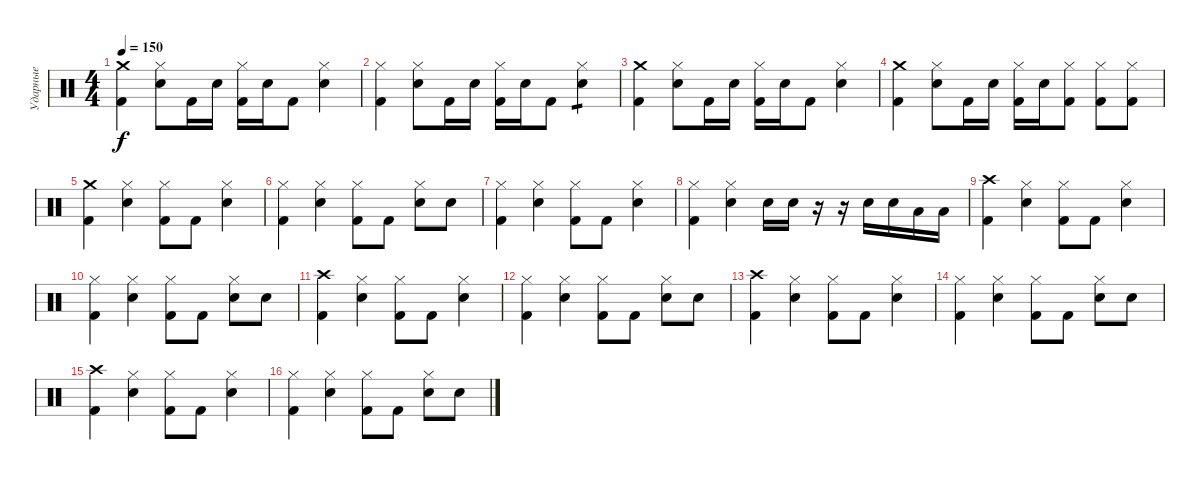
\track ("Ударные" "Ударные") {instrument percussion}
\staff {score}
\articulation defaults
\ts (4 4)
\tempo 150
\clef neutral
\ks c
("Crash medium (hit)" "Kick (hit) 2").4{dy f} ("Hi-Hat (closed)" "Electric Snare (hit)").8 "Kick (hit) 2".16 "Electric Snare (hit)".16 ("Hi-Hat (closed)" "Kick (hit) 2").16 "Electric Snare (hit)".16 "Kick (hit) 2".8 ("Hi-Hat (closed)" "Electric Snare (hit)").4 |
("Hi-Hat (closed)" "Kick (hit) 2").4 ("Hi-Hat (closed)" "Electric Snare (hit)").8 "Kick (hit) 2".16 "Electric Snare (hit)".16 ("Hi-Hat (closed)" "Kick (hit) 2").16 "Electric Snare (hit)".16 "Kick (hit) 2".8 ("Hi-Hat (closed)" "Electric Snare (hit)").4{tp 1} |
("Crash medium (hit)" "Kick (hit) 2").4 ("Hi-Hat (closed)" "Electric Snare (hit)").8 "Kick (hit) 2".16 "Electric Snare (hit)".16 ("Hi-Hat (closed)" "Kick (hit) 2").16 "Electric Snare (hit)".16 "Kick (hit) 2".8 ("Hi-Hat (closed)" "Electric Snare (hit)").4 |
("Crash medium (hit)" "Kick (hit) 2").4 ("Hi-Hat (closed)" "Electric Snare (hit)").8 "Kick (hit) 2".16 "Electric Snare (hit)".16 ("Hi-Hat (closed)" "Kick (hit) 2").16 "Electric Snare (hit)".16 ("Kick (hit) 2" "Hi-Hat (closed)").8 ("Kick (hit) 2" "Hi-Hat (closed)").8 ("Kick (hit) 2" "Hi-Hat (closed)").8 |
("Kick (hit) 2" "Crash medium (hit)").4 ("Hi-Hat (closed)" "Electric Snare (hit)").4 ("Hi-Hat (closed)" "Kick (hit) 2").8 "Kick (hit) 2".8 ("Hi-Hat (closed)" "Electric Snare (hit)").4 |
("Hi-Hat (closed)" "Kick (hit) 2").4 ("Hi-Hat (closed)" "Electric Snare (hit)").4 ("Hi-Hat (closed)" "Kick (hit) 2").8 "Kick (hit) 2".8 ("Hi-Hat (closed)" "Electric Snare (hit)").8 "Electric Snare (hit)".8 |
("Hi-Hat (closed)" "Kick (hit) 2").4 ("Hi-Hat (closed)" "Electric Snare (hit)").4 ("Hi-Hat (closed)" "Kick (hit) 2").8 "Kick (hit) 2".8 ("Hi-Hat (closed)" "Electric Snare (hit)").4 |
("Hi-Hat (closed)" "Kick (hit) 2").4 ("Hi-Hat (closed)" "Electric Snare (hit)").4 "Electric Snare (hit)".16 "Electric Snare (hit)".16 r.16 r.16 "Electric Snare (hit)".16 "Electric Snare (hit)".16 "Low Tom (hit)".16 "Low Tom (hit)".16 |
("Crash high (hit)" "Kick (hit) 2").4 ("Hi-Hat (closed)" "Electric Snare (hit)").4 ("Hi-Hat (closed)" "Kick (hit) 2").8 "Kick (hit) 2".8 ("Hi-Hat (closed)" "Electric Snare (hit)").4 |
("Hi-Hat (closed)" "Kick (hit) 2").4 ("Hi-Hat (closed)" "Electric Snare (hit)").4 ("Hi-Hat (closed)" "Kick (hit) 2").8 "Kick (hit) 2".8 ("Hi-Hat (closed)" "Electric Snare (hit)").8 "Electric Snare (hit)".8 |
("Crash high (hit)" "Kick (hit) 2").4 ("Hi-Hat (closed)" "Electric Snare (hit)").4 ("Hi-Hat (closed)" "Kick (hit) 2").8 "Kick (hit) 2".8 ("Hi-Hat (closed)" "Electric Snare (hit)").4 |
("Hi-Hat (closed)" "Kick (hit) 2").4 ("Hi-Hat (closed)" "Electric Snare (hit)").4 ("Hi-Hat (closed)" "Kick (hit) 2").8 "Kick (hit) 2".8 ("Hi-Hat (closed)" "Electric Snare (hit)").8 "Electric Snare (hit)".8 |
("Crash high (hit)" "Kick (hit) 2").4 ("Hi-Hat (closed)" "Electric Snare (hit)").4 ("Hi-Hat (closed)" "Kick (hit) 2").8 "Kick (hit) 2".8 ("Hi-Hat (closed)" "Electric Snare (hit)").4 |
("Hi-Hat (closed)" "Kick (hit) 2").4 ("Hi-Hat (closed)" "Electric Snare (hit)").4 ("Hi-Hat (closed)" "Kick (hit) 2").8 "Kick (hit) 2".8 ("Hi-Hat (closed)" "Electric Snare (hit)").8 "Electric Snare (hit)".8 |
("Crash high (hit)" "Kick (hit) 2").4 ("Hi-Hat (closed)" "Electric Snare (hit)").4 ("Hi-Hat (closed)" "Kick (hit) 2").8 "Kick (hit) 2".8 ("Hi-Hat (closed)" "Electric Snare (hit)").4 |
("Hi-Hat (closed)" "Kick (hit) 2").4 ("Hi-Hat (closed)" "Electric Snare (hit)").4 ("Hi-Hat (closed)" "Kick (hit) 2").8 "Kick (hit) 2".8 ("Hi-Hat (closed)" "Electric Snare (hit)").8 "Electric Snare (hit)".8
